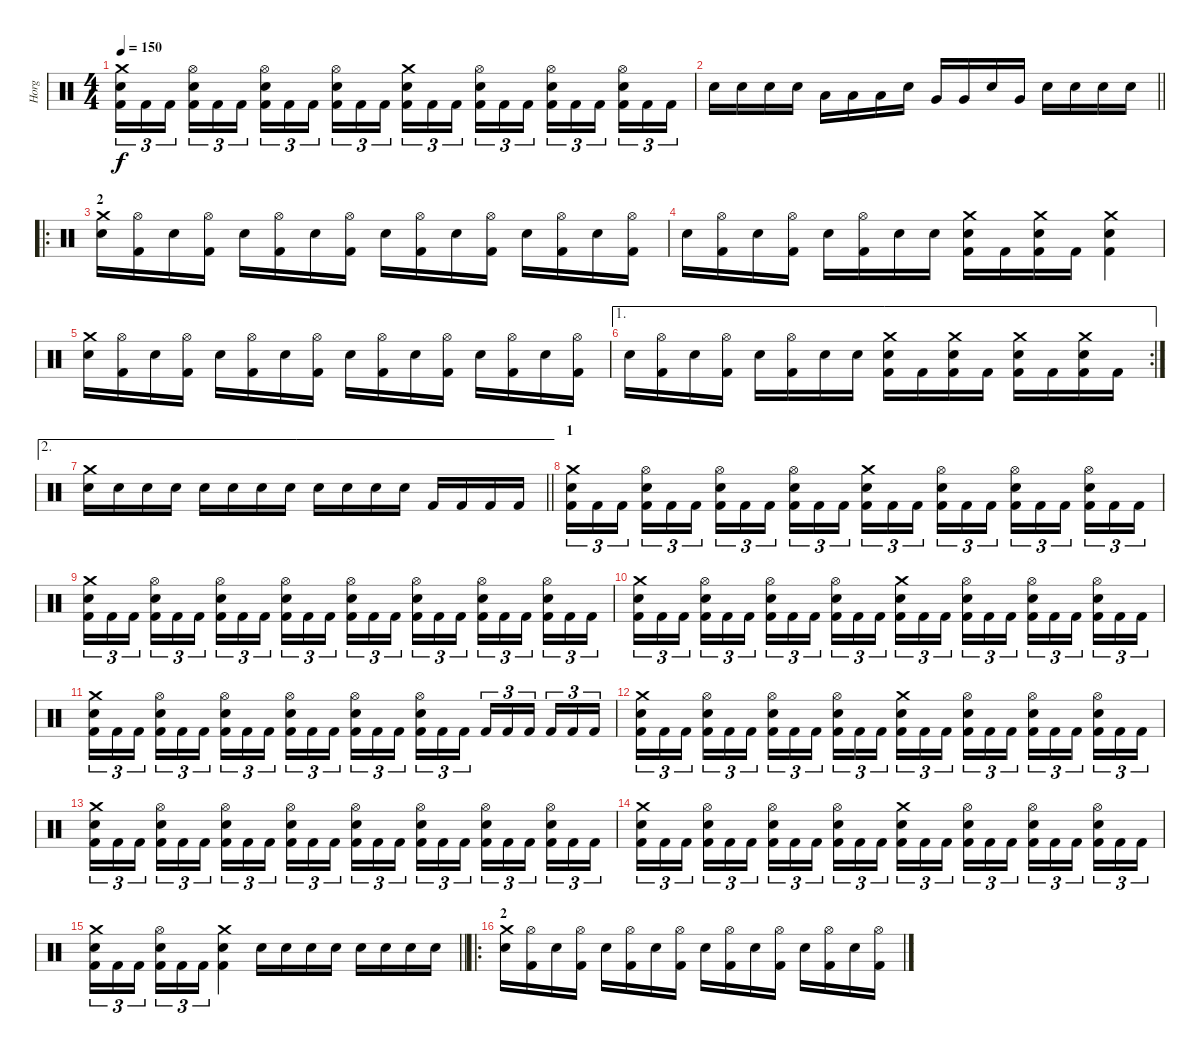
\track ("Horg" "Horg") {instrument percussion}
\staff {score}
\articulation defaults
\ts (4 4)
\tempo 150
\clef neutral
\ks c
("Crash medium (hit)" "Snare (hit) 2" "Kick (hit) 2").16{tu (3 2) dy f} "Kick (hit) 2".16{tu (3 2)} "Kick (hit) 2".16{tu (3 2) beam splitsecondary} ("Hi-Hat (open)" "Snare (hit) 2" "Kick (hit) 2").16{tu (3 2)} "Kick (hit) 2".16{tu (3 2)} "Kick (hit) 2".16{tu (3 2)} ("Hi-Hat (open)" "Snare (hit) 2" "Kick (hit) 2").16{tu (3 2)} "Kick (hit) 2".16{tu (3 2)} "Kick (hit) 2".16{tu (3 2) beam splitsecondary} ("Hi-Hat (open)" "Snare (hit) 2" "Kick (hit) 2").16{tu (3 2)} "Kick (hit) 2".16{tu (3 2)} "Kick (hit) 2".16{tu (3 2)} ("Crash medium (hit)" "Snare (hit) 2" "Kick (hit) 2").16{tu (3 2)} "Kick (hit) 2".16{tu (3 2)} "Kick (hit) 2".16{tu (3 2) beam splitsecondary} ("Hi-Hat (open)" "Snare (hit) 2" "Kick (hit) 2").16{tu (3 2)} "Kick (hit) 2".16{tu (3 2)} "Kick (hit) 2".16{tu (3 2)} ("Hi-Hat (open)" "Snare (hit) 2" "Kick (hit) 2").16{tu (3 2)} "Kick (hit) 2".16{tu (3 2)} "Kick (hit) 2".16{tu (3 2) beam splitsecondary} ("Hi-Hat (open)" "Snare (hit) 2" "Kick (hit) 2").16{tu (3 2)} "Kick (hit) 2".16{tu (3 2)} "Kick (hit) 2".16{tu (3 2)} |
\barLineRight lightlight "Snare (hit) 2".16 "Snare (hit) 2".16 "Snare (hit) 2".16 "Snare (hit) 2".16 "Low Tom (hit)".16 "Low Tom (hit)".16 "Low Tom (hit)".16 "Snare (hit) 2".16 "Very Low Tom (hit)".16 "Very Low Tom (hit)".16 "Snare (hit) 2".16 "Very Low Tom (hit)".16 "Snare (hit) 2".16 "Snare (hit) 2".16 "Snare (hit) 2".16 "Snare (hit) 2".16
|
\ro
\section ("" "2")
("Crash medium (hit)" "Snare (hit) 2").16 ("Hi-Hat (open)" "Kick (hit) 2").16 "Snare (hit) 2".16 ("Hi-Hat (open)" "Kick (hit) 2").16 "Snare (hit) 2".16 ("Hi-Hat (open)" "Kick (hit) 2").16 "Snare (hit) 2".16 ("Hi-Hat (open)" "Kick (hit) 2").16 "Snare (hit) 2".16 ("Hi-Hat (open)" "Kick (hit) 2").16 "Snare (hit) 2".16 ("Hi-Hat (open)" "Kick (hit) 2").16 "Snare (hit) 2".16 ("Hi-Hat (open)" "Kick (hit) 2").16 "Snare (hit) 2".16 ("Hi-Hat (open)" "Kick (hit) 2").16 |
"Snare (hit) 2".16 ("Hi-Hat (open)" "Kick (hit) 2").16 "Snare (hit) 2".16 ("Hi-Hat (open)" "Kick (hit) 2").16 "Snare (hit) 2".16 ("Hi-Hat (open)" "Kick (hit) 2").16 "Snare (hit) 2".16 "Snare (hit) 2".16 ("Crash medium (hit)" "Snare (hit) 2" "Kick (hit) 2").16 "Kick (hit) 2".16 ("Crash medium (hit)" "Snare (hit) 2" "Kick (hit) 2").16 "Kick (hit) 2".16 ("Crash medium (hit)" "Snare (hit) 2" "Kick (hit) 2").4 |
("Crash medium (hit)" "Snare (hit) 2").16 ("Hi-Hat (open)" "Kick (hit) 2").16 "Snare (hit) 2".16 ("Hi-Hat (open)" "Kick (hit) 2").16 "Snare (hit) 2".16 ("Hi-Hat (open)" "Kick (hit) 2").16 "Snare (hit) 2".16 ("Hi-Hat (open)" "Kick (hit) 2").16 "Snare (hit) 2".16 ("Hi-Hat (open)" "Kick (hit) 2").16 "Snare (hit) 2".16 ("Hi-Hat (open)" "Kick (hit) 2").16 "Snare (hit) 2".16 ("Hi-Hat (open)" "Kick (hit) 2").16 "Snare (hit) 2".16 ("Hi-Hat (open)" "Kick (hit) 2").16 |
\ae 1
\rc 2 "Snare (hit) 2".16
("Hi-Hat (open)" "Kick (hit) 2").16 "Snare (hit) 2".16 ("Hi-Hat (open)" "Kick (hit) 2").16 "Snare (hit) 2".16 ("Hi-Hat (open)" "Kick (hit) 2").16 "Snare (hit) 2".16 "Snare (hit) 2".16 ("Crash medium (hit)" "Snare (hit) 2" "Kick (hit) 2").16 "Kick (hit) 2".16 ("Crash medium (hit)" "Snare (hit) 2" "Kick (hit) 2").16 "Kick (hit) 2".16 ("Crash medium (hit)" "Snare (hit) 2" "Kick (hit) 2").16 "Kick (hit) 2".16 ("Crash medium (hit)" "Snare (hit) 2" "Kick (hit) 2").16 "Kick (hit) 2".16 |
\ae 2
\barLineRight lightlight
("Crash medium (hit)" "Snare (hit) 2").16 "Snare (hit) 2".16 "Snare (hit) 2".16 "Snare (hit) 2".16 "Snare (hit) 2".16 "Snare (hit) 2".16 "Snare (hit) 2".16 "Snare (hit) 2".16 "Snare (hit) 2".16 "Snare (hit) 2".16 "Snare (hit) 2".16 "Snare (hit) 2".16 "Kick (hit) 2".16 "Kick (hit) 2".16 "Kick (hit) 2".16 "Kick (hit) 2".16 |
\section ("" "1")
("Crash medium (hit)" "Snare (hit) 2" "Kick (hit) 2").16{tu (3 2)} "Kick (hit) 2".16{tu (3 2)} "Kick (hit) 2".16{tu (3 2) beam splitsecondary} ("Hi-Hat (open)" "Snare (hit) 2" "Kick (hit) 2").16{tu (3 2)} "Kick (hit) 2".16{tu (3 2)} "Kick (hit) 2".16{tu (3 2)} ("Hi-Hat (open)" "Snare (hit) 2" "Kick (hit) 2").16{tu (3 2)} "Kick (hit) 2".16{tu (3 2)} "Kick (hit) 2".16{tu (3 2) beam splitsecondary} ("Hi-Hat (open)" "Snare (hit) 2" "Kick (hit) 2").16{tu (3 2)} "Kick (hit) 2".16{tu (3 2)} "Kick (hit) 2".16{tu (3 2)} ("Crash medium (hit)" "Snare (hit) 2" "Kick (hit) 2").16{tu (3 2)} "Kick (hit) 2".16{tu (3 2)} "Kick (hit) 2".16{tu (3 2) beam splitsecondary} ("Hi-Hat (open)" "Snare (hit) 2" "Kick (hit) 2").16{tu (3 2)} "Kick (hit) 2".16{tu (3 2)} "Kick (hit) 2".16{tu (3 2)} ("Hi-Hat (open)" "Snare (hit) 2" "Kick (hit) 2").16{tu (3 2)} "Kick (hit) 2".16{tu (3 2)} "Kick (hit) 2".16{tu (3 2) beam splitsecondary} ("Hi-Hat (open)" "Snare (hit) 2" "Kick (hit) 2").16{tu (3 2)} "Kick (hit) 2".16{tu (3 2)} "Kick (hit) 2".16{tu (3 2)} |
("Crash medium (hit)" "Snare (hit) 2" "Kick (hit) 2").16{tu (3 2)} "Kick (hit) 2".16{tu (3 2)} "Kick (hit) 2".16{tu (3 2) beam splitsecondary} ("Hi-Hat (open)" "Snare (hit) 2" "Kick (hit) 2").16{tu (3 2)} "Kick (hit) 2".16{tu (3 2)} "Kick (hit) 2".16{tu (3 2)} ("Hi-Hat (open)" "Snare (hit) 2" "Kick (hit) 2").16{tu (3 2)} "Kick (hit) 2".16{tu (3 2)} "Kick (hit) 2".16{tu (3 2) beam splitsecondary} ("Hi-Hat (open)" "Snare (hit) 2" "Kick (hit) 2").16{tu (3 2)} "Kick (hit) 2".16{tu (3 2)} "Kick (hit) 2".16{tu (3 2)} ("Hi-Hat (open)" "Snare (hit) 2" "Kick (hit) 2").16{tu (3 2)} "Kick (hit) 2".16{tu (3 2)} "Kick (hit) 2".16{tu (3 2) beam splitsecondary} ("Hi-Hat (open)" "Snare (hit) 2" "Kick (hit) 2").16{tu (3 2)} "Kick (hit) 2".16{tu (3 2)} "Kick (hit) 2".16{tu (3 2)} ("Hi-Hat (open)" "Snare (hit) 2" "Kick (hit) 2").16{tu (3 2)} "Kick (hit) 2".16{tu (3 2)} "Kick (hit) 2".16{tu (3 2) beam splitsecondary} ("Hi-Hat (open)" "Snare (hit) 2" "Kick (hit) 2").16{tu (3 2)} "Kick (hit) 2".16{tu (3 2)} "Kick (hit) 2".16{tu (3 2)} |
("Crash medium (hit)" "Snare (hit) 2" "Kick (hit) 2").16{tu (3 2)} "Kick (hit) 2".16{tu (3 2)} "Kick (hit) 2".16{tu (3 2) beam splitsecondary} ("Hi-Hat (open)" "Snare (hit) 2" "Kick (hit) 2").16{tu (3 2)} "Kick (hit) 2".16{tu (3 2)} "Kick (hit) 2".16{tu (3 2)} ("Hi-Hat (open)" "Snare (hit) 2" "Kick (hit) 2").16{tu (3 2)} "Kick (hit) 2".16{tu (3 2)} "Kick (hit) 2".16{tu (3 2) beam splitsecondary} ("Hi-Hat (open)" "Snare (hit) 2" "Kick (hit) 2").16{tu (3 2)} "Kick (hit) 2".16{tu (3 2)} "Kick (hit) 2".16{tu (3 2)} ("Crash medium (hit)" "Snare (hit) 2" "Kick (hit) 2").16{tu (3 2)} "Kick (hit) 2".16{tu (3 2)} "Kick (hit) 2".16{tu (3 2) beam splitsecondary} ("Hi-Hat (open)" "Snare (hit) 2" "Kick (hit) 2").16{tu (3 2)} "Kick (hit) 2".16{tu (3 2)} "Kick (hit) 2".16{tu (3 2)} ("Hi-Hat (open)" "Snare (hit) 2" "Kick (hit) 2").16{tu (3 2)} "Kick (hit) 2".16{tu (3 2)} "Kick (hit) 2".16{tu (3 2) beam splitsecondary} ("Hi-Hat (open)" "Snare (hit) 2" "Kick (hit) 2").16{tu (3 2)} "Kick (hit) 2".16{tu (3 2)} "Kick (hit) 2".16{tu (3 2)} |
("Crash medium (hit)" "Snare (hit) 2" "Kick (hit) 2").16{tu (3 2)} "Kick (hit) 2".16{tu (3 2)} "Kick (hit) 2".16{tu (3 2) beam splitsecondary} ("Hi-Hat (open)" "Snare (hit) 2" "Kick (hit) 2").16{tu (3 2)} "Kick (hit) 2".16{tu (3 2)} "Kick (hit) 2".16{tu (3 2)} ("Hi-Hat (open)" "Snare (hit) 2" "Kick (hit) 2").16{tu (3 2)} "Kick (hit) 2".16{tu (3 2)} "Kick (hit) 2".16{tu (3 2) beam splitsecondary} ("Hi-Hat (open)" "Snare (hit) 2" "Kick (hit) 2").16{tu (3 2)} "Kick (hit) 2".16{tu (3 2)} "Kick (hit) 2".16{tu (3 2)} ("Hi-Hat (open)" "Snare (hit) 2" "Kick (hit) 2").16{tu (3 2)} "Kick (hit) 2".16{tu (3 2)} "Kick (hit) 2".16{tu (3 2) beam splitsecondary} ("Hi-Hat (open)" "Snare (hit) 2" "Kick (hit) 2").16{tu (3 2)} "Kick (hit) 2".16{tu (3 2)} "Kick (hit) 2".16{tu (3 2)} "Kick (hit) 2".16{tu (3 2)} "Kick (hit) 2".16{tu (3 2)} "Kick (hit) 2".16{tu (3 2) beam splitsecondary} "Kick (hit) 2".16{tu (3 2)} "Kick (hit) 2".16{tu (3 2)} "Kick (hit) 2".16{tu (3 2)} |
("Crash medium (hit)" "Snare (hit) 2" "Kick (hit) 2").16{tu (3 2)} "Kick (hit) 2".16{tu (3 2)} "Kick (hit) 2".16{tu (3 2) beam splitsecondary} ("Hi-Hat (open)" "Snare (hit) 2" "Kick (hit) 2").16{tu (3 2)} "Kick (hit) 2".16{tu (3 2)} "Kick (hit) 2".16{tu (3 2)} ("Hi-Hat (open)" "Snare (hit) 2" "Kick (hit) 2").16{tu (3 2)} "Kick (hit) 2".16{tu (3 2)} "Kick (hit) 2".16{tu (3 2) beam splitsecondary} ("Hi-Hat (open)" "Snare (hit) 2" "Kick (hit) 2").16{tu (3 2)} "Kick (hit) 2".16{tu (3 2)} "Kick (hit) 2".16{tu (3 2)} ("Crash medium (hit)" "Snare (hit) 2" "Kick (hit) 2").16{tu (3 2)} "Kick (hit) 2".16{tu (3 2)} "Kick (hit) 2".16{tu (3 2) beam splitsecondary} ("Hi-Hat (open)" "Snare (hit) 2" "Kick (hit) 2").16{tu (3 2)} "Kick (hit) 2".16{tu (3 2)} "Kick (hit) 2".16{tu (3 2)} ("Hi-Hat (open)" "Snare (hit) 2" "Kick (hit) 2").16{tu (3 2)} "Kick (hit) 2".16{tu (3 2)} "Kick (hit) 2".16{tu (3 2) beam splitsecondary} ("Hi-Hat (open)" "Snare (hit) 2" "Kick (hit) 2").16{tu (3 2)} "Kick (hit) 2".16{tu (3 2)} "Kick (hit) 2".16{tu (3 2)} |
("Crash medium (hit)" "Snare (hit) 2" "Kick (hit) 2").16{tu (3 2)} "Kick (hit) 2".16{tu (3 2)} "Kick (hit) 2".16{tu (3 2) beam splitsecondary} ("Hi-Hat (open)" "Snare (hit) 2" "Kick (hit) 2").16{tu (3 2)} "Kick (hit) 2".16{tu (3 2)} "Kick (hit) 2".16{tu (3 2)} ("Hi-Hat (open)" "Snare (hit) 2" "Kick (hit) 2").16{tu (3 2)} "Kick (hit) 2".16{tu (3 2)} "Kick (hit) 2".16{tu (3 2) beam splitsecondary} ("Hi-Hat (open)" "Snare (hit) 2" "Kick (hit) 2").16{tu (3 2)} "Kick (hit) 2".16{tu (3 2)} "Kick (hit) 2".16{tu (3 2)} ("Hi-Hat (open)" "Snare (hit) 2" "Kick (hit) 2").16{tu (3 2)} "Kick (hit) 2".16{tu (3 2)} "Kick (hit) 2".16{tu (3 2) beam splitsecondary} ("Hi-Hat (open)" "Snare (hit) 2" "Kick (hit) 2").16{tu (3 2)} "Kick (hit) 2".16{tu (3 2)} "Kick (hit) 2".16{tu (3 2)} ("Hi-Hat (open)" "Snare (hit) 2" "Kick (hit) 2").16{tu (3 2)} "Kick (hit) 2".16{tu (3 2)} "Kick (hit) 2".16{tu (3 2) beam splitsecondary} ("Hi-Hat (open)" "Snare (hit) 2" "Kick (hit) 2").16{tu (3 2)} "Kick (hit) 2".16{tu (3 2)} "Kick (hit) 2".16{tu (3 2)} |
("Crash medium (hit)" "Snare (hit) 2" "Kick (hit) 2").16{tu (3 2)} "Kick (hit) 2".16{tu (3 2)} "Kick (hit) 2".16{tu (3 2) beam splitsecondary} ("Hi-Hat (open)" "Snare (hit) 2" "Kick (hit) 2").16{tu (3 2)} "Kick (hit) 2".16{tu (3 2)} "Kick (hit) 2".16{tu (3 2)} ("Hi-Hat (open)" "Snare (hit) 2" "Kick (hit) 2").16{tu (3 2)} "Kick (hit) 2".16{tu (3 2)} "Kick (hit) 2".16{tu (3 2) beam splitsecondary} ("Hi-Hat (open)" "Snare (hit) 2" "Kick (hit) 2").16{tu (3 2)} "Kick (hit) 2".16{tu (3 2)} "Kick (hit) 2".16{tu (3 2)} ("Crash medium (hit)" "Snare (hit) 2" "Kick (hit) 2").16{tu (3 2)} "Kick (hit) 2".16{tu (3 2)} "Kick (hit) 2".16{tu (3 2) beam splitsecondary} ("Hi-Hat (open)" "Snare (hit) 2" "Kick (hit) 2").16{tu (3 2)} "Kick (hit) 2".16{tu (3 2)} "Kick (hit) 2".16{tu (3 2)} ("Hi-Hat (open)" "Snare (hit) 2" "Kick (hit) 2").16{tu (3 2)} "Kick (hit) 2".16{tu (3 2)} "Kick (hit) 2".16{tu (3 2) beam splitsecondary} ("Hi-Hat (open)" "Snare (hit) 2" "Kick (hit) 2").16{tu (3 2)} "Kick (hit) 2".16{tu (3 2)} "Kick (hit) 2".16{tu (3 2)} |
\barLineRight lightlight
("Crash medium (hit)" "Snare (hit) 2" "Kick (hit) 2").16{tu (3 2)} "Kick (hit) 2".16{tu (3 2)} "Kick (hit) 2".16{tu (3 2) beam splitsecondary} ("Hi-Hat (open)" "Snare (hit) 2" "Kick (hit) 2").16{tu (3 2)} "Kick (hit) 2".16{tu (3 2)} "Kick (hit) 2".16{tu (3 2)} ("Crash medium (hit)" "Snare (hit) 2" "Kick (hit) 2").4 "Snare (hit) 2".16 "Snare (hit) 2".16 "Snare (hit) 2".16 "Snare (hit) 2".16 "Snare (hit) 2".16 "Snare (hit) 2".16 "Snare (hit) 2".16 "Snare (hit) 2".16 |
\ro
\section ("" "2")
("Crash medium (hit)" "Snare (hit) 2").16 ("Hi-Hat (open)" "Kick (hit) 2").16 "Snare (hit) 2".16 ("Hi-Hat (open)" "Kick (hit) 2").16 "Snare (hit) 2".16 ("Hi-Hat (open)" "Kick (hit) 2").16 "Snare (hit) 2".16 ("Hi-Hat (open)" "Kick (hit) 2").16 "Snare (hit) 2".16 ("Hi-Hat (open)" "Kick (hit) 2").16 "Snare (hit) 2".16 ("Hi-Hat (open)" "Kick (hit) 2").16 "Snare (hit) 2".16 ("Hi-Hat (open)" "Kick (hit) 2").16 "Snare (hit) 2".16 ("Hi-Hat (open)" "Kick (hit) 2").16
